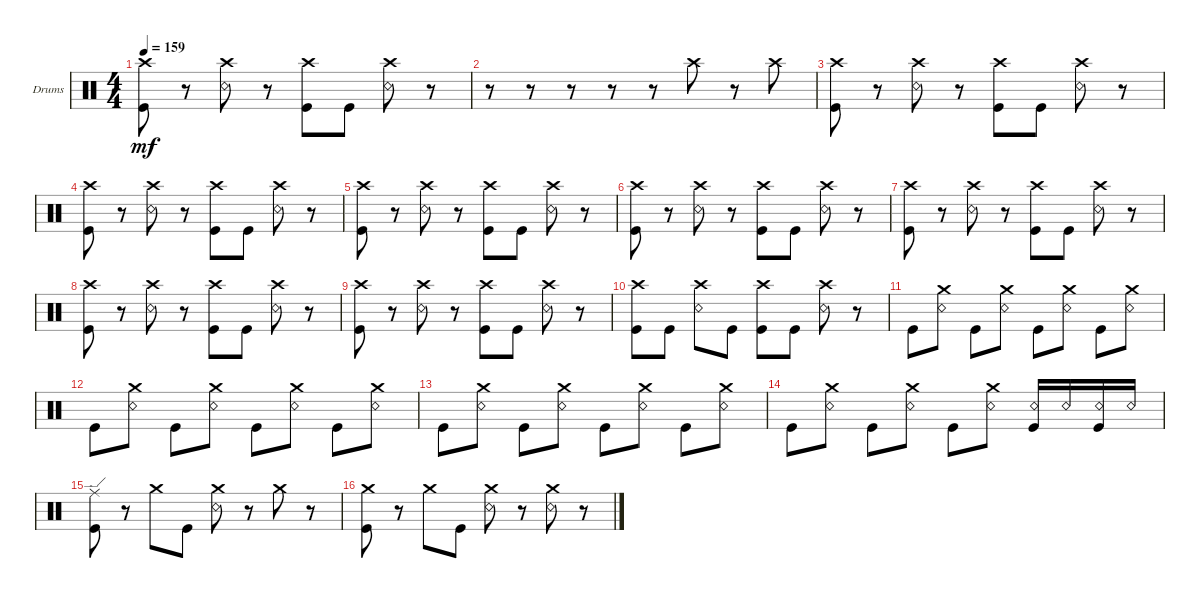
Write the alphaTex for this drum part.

\defaultSystemsLayout 4
\bracketExtendMode groupsimilarinstruments
\firstSystemTrackNameOrientation horizontal
\otherSystemsTrackNameOrientation horizontal
\track ("Drumkit" "Drums") {instrument percussion}
\staff {score}
\articulation defaults
\ts (4 4)
\tempo 159
\clef neutral
\ks c
("Crash high (hit)" "Kick (hit)").8{dy mf} r.8 ("Crash high (hit)" "Snare (rim shot)").8 r.8 ("Crash high (hit)" "Kick (hit)").8 "Kick (hit)".8 ("Crash high (hit)" "Snare (rim shot)").8 r.8 |
r.8 r.8 r.8 r.8 r.8 "Crash high (hit)".8 r.8 "Crash high (hit)".8 |
("Crash high (hit)" "Kick (hit)").8 r.8 ("Crash high (hit)" "Snare (rim shot)").8 r.8 ("Crash high (hit)" "Kick (hit)").8 "Kick (hit)".8 ("Crash high (hit)" "Snare (rim shot)").8 r.8 |
("Crash high (hit)" "Kick (hit)").8 r.8 ("Crash high (hit)" "Snare (rim shot)").8 r.8 ("Crash high (hit)" "Kick (hit)").8 "Kick (hit)".8 ("Crash high (hit)" "Snare (rim shot)").8 r.8 |
("Crash high (hit)" "Kick (hit)").8 r.8 ("Crash high (hit)" "Snare (rim shot)").8 r.8 ("Crash high (hit)" "Kick (hit)").8 "Kick (hit)".8 ("Crash high (hit)" "Snare (rim shot)").8 r.8 |
("Crash high (hit)" "Kick (hit)").8 r.8 ("Crash high (hit)" "Snare (rim shot)").8 r.8 ("Crash high (hit)" "Kick (hit)").8 "Kick (hit)".8 ("Crash high (hit)" "Snare (rim shot)").8 r.8 |
("Crash high (hit)" "Kick (hit)").8 r.8 ("Crash high (hit)" "Snare (rim shot)").8 r.8 ("Crash high (hit)" "Kick (hit)").8 "Kick (hit)".8 ("Crash high (hit)" "Snare (rim shot)").8 r.8 |
("Crash high (hit)" "Kick (hit)").8 r.8 ("Crash high (hit)" "Snare (rim shot)").8 r.8 ("Crash high (hit)" "Kick (hit)").8 "Kick (hit)".8 ("Crash high (hit)" "Snare (rim shot)").8 r.8 |
("Crash high (hit)" "Kick (hit)").8 r.8 ("Crash high (hit)" "Snare (rim shot)").8 r.8 ("Crash high (hit)" "Kick (hit)").8 "Kick (hit)".8 ("Crash high (hit)" "Snare (rim shot)").8 r.8 |
("Crash high (hit)" "Kick (hit)").8 "Kick (hit)".8 ("Crash high (hit)" "Snare (rim shot)").8 "Kick (hit)".8 ("Crash high (hit)" "Kick (hit)").8 "Kick (hit)".8 ("Crash high (hit)" "Snare (rim shot)").8 r.8 |
"Kick (hit)".8 ("Crash medium (hit)" "Snare (rim shot)").8 "Kick (hit)".8 ("Crash medium (hit)" "Snare (rim shot)").8 "Kick (hit)".8 ("Crash medium (hit)" "Snare (rim shot)").8 "Kick (hit)".8 ("Crash medium (hit)" "Snare (rim shot)").8 |
"Kick (hit)".8 ("Crash medium (hit)" "Snare (rim shot)").8 "Kick (hit)".8 ("Crash medium (hit)" "Snare (rim shot)").8 "Kick (hit)".8 ("Crash medium (hit)" "Snare (rim shot)").8 "Kick (hit)".8 ("Crash medium (hit)" "Snare (rim shot)").8 |
"Kick (hit)".8 ("Crash medium (hit)" "Snare (rim shot)").8 "Kick (hit)".8 ("Crash medium (hit)" "Snare (rim shot)").8 "Kick (hit)".8 ("Crash medium (hit)" "Snare (rim shot)").8 "Kick (hit)".8 ("Crash medium (hit)" "Snare (rim shot)").8 |
"Kick (hit)".8 ("Snare (rim shot)" "Crash medium (hit)").8 "Kick (hit)".8 ("Snare (rim shot)" "Crash medium (hit)").8 "Kick (hit)".8 ("Crash medium (hit)" "Snare (rim shot)").8 ("Kick (hit)" "Snare (rim shot)").16 "Snare (rim shot)".16 ("Kick (hit)" "Snare (rim shot)").16 "Snare (rim shot)".16 |
("Ride (edge)" "Kick (hit)").8 r.8 "Crash medium (hit)".8 "Kick (hit)".8 ("Crash medium (hit)" "Snare (rim shot)").8 r.8 "Crash medium (hit)".8 r.8 |
("Crash medium (hit)" "Kick (hit)").8 r.8 "Crash medium (hit)".8 "Kick (hit)".8 ("Crash medium (hit)" "Snare (rim shot)").8 r.8 ("Crash medium (hit)" "Snare (rim shot)").8 r.8
